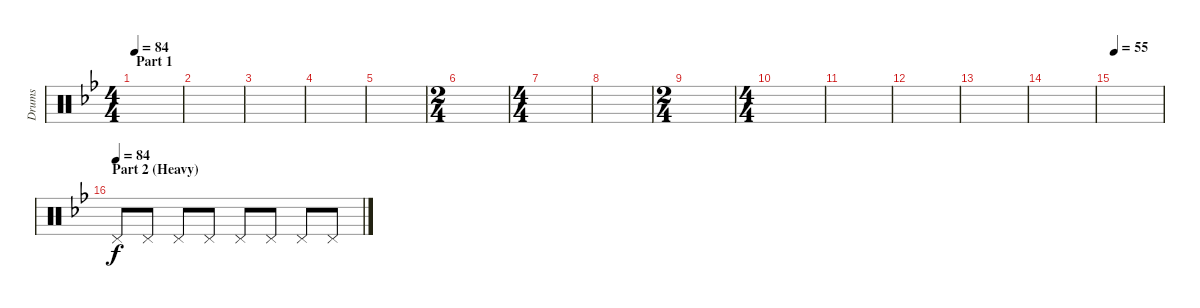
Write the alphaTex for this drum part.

\track ("Drums" "Drums") {instrument percussion}
\staff {score}
\articulation defaults
\ts (4 4)
\section ("" "Part 1")
\tempo 84
\clef neutral
\ks bb
|
|
|
|
|
\ts (2 4)
|
\ts (4 4)
|
|
\ts (2 4)
|
\ts (4 4)
|
|
|
|
|
\tempo 55
|
\section ("" "Part 2 (Heavy)")
\tempo (84)
"Pedal Hi-Hat (hit)".8 "Pedal Hi-Hat (hit)".8 "Pedal Hi-Hat (hit)".8 "Pedal Hi-Hat (hit)".8 "Pedal Hi-Hat (hit)".8 "Pedal Hi-Hat (hit)".8 "Pedal Hi-Hat (hit)".8 "Pedal Hi-Hat (hit)".8
